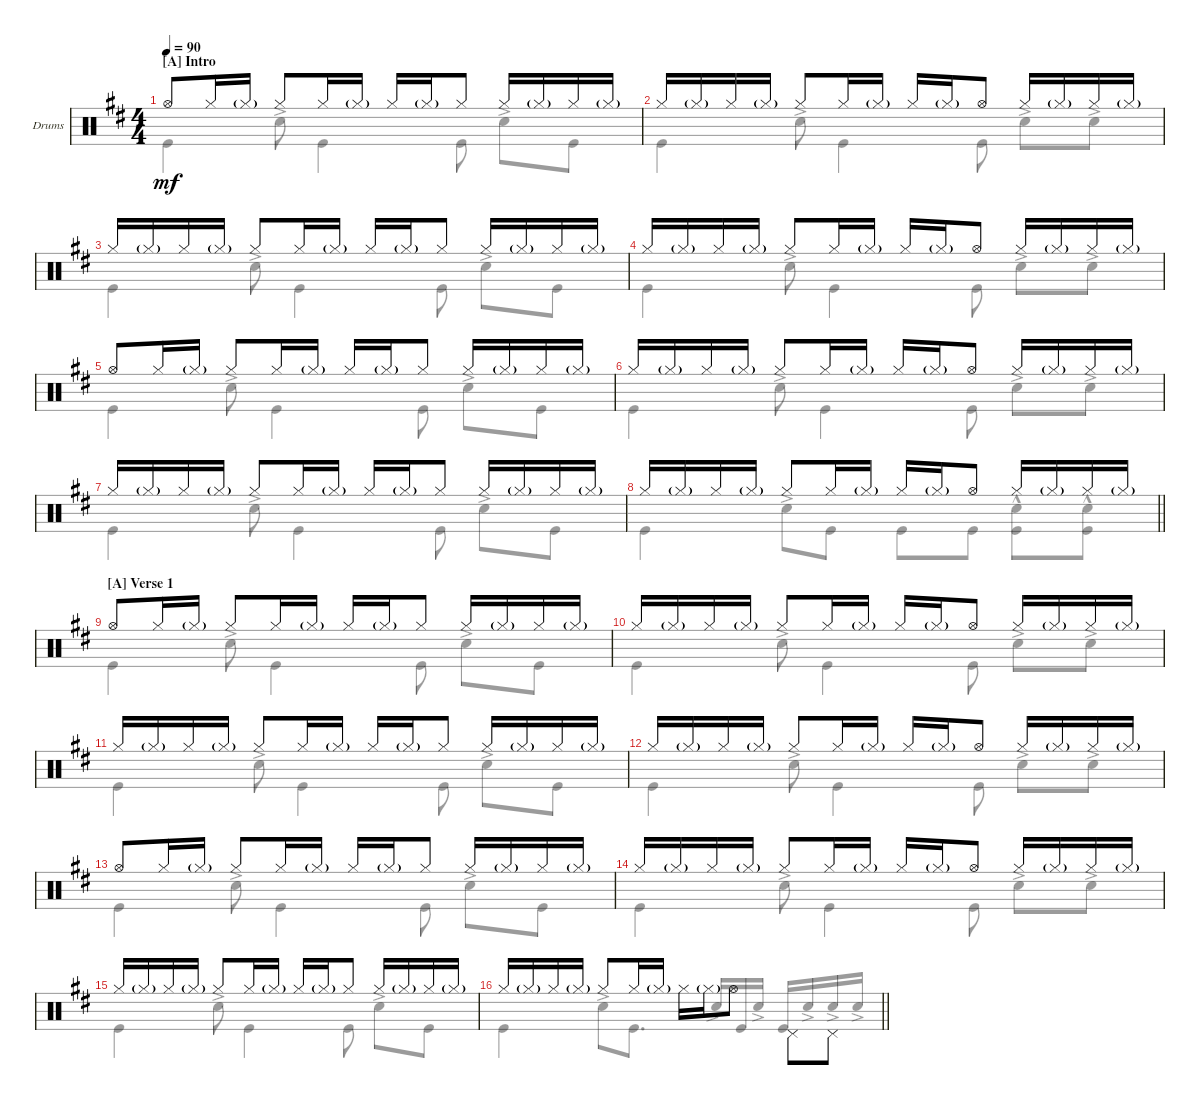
\defaultSystemsLayout 4
\bracketExtendMode groupsimilarinstruments
\firstSystemTrackNameOrientation horizontal
\otherSystemsTrackNameOrientation horizontal
\track ("Drumkit" "Drums") {instrument percussion}
\staff {score}
\articulation defaults
\voice
\ts (4 4)
\section ("A" "Intro")
\tempo 90
\clef neutral
\scale
0.552632
\ks d "Hi-Hat (open)".8{dy mf} "Hi-Hat (closed)".16 "Hi-Hat (closed)"{g}.16 "Hi-Hat (closed)".8 "Hi-Hat (closed)".16 "Hi-Hat (closed)"{g}.16 "Hi-Hat (closed)".16 "Hi-Hat (closed)"{g}.16 "Hi-Hat (closed)".8 "Hi-Hat (closed)".16 "Hi-Hat (closed)"{g}.16 "Hi-Hat (closed)".16 "Hi-Hat (closed)"{g}.16
|
\scale
0.447368 "Hi-Hat (closed)".16 "Hi-Hat (closed)"{g}.16 "Hi-Hat (closed)".16 "Hi-Hat (closed)"{g}.16 "Hi-Hat (closed)".8 "Hi-Hat (closed)".16 "Hi-Hat (closed)"{g}.16 "Hi-Hat (closed)".16 "Hi-Hat (closed)"{g}.16 "Hi-Hat (open)".8 "Hi-Hat (closed)".16 "Hi-Hat (closed)"{g}.16 "Hi-Hat (closed)".16 "Hi-Hat (closed)"{g}.16 |
\scale
0.5 "Hi-Hat (closed)".16 "Hi-Hat (closed)"{g}.16 "Hi-Hat (closed)".16 "Hi-Hat (closed)"{g}.16 "Hi-Hat (closed)".8 "Hi-Hat (closed)".16 "Hi-Hat (closed)"{g}.16 "Hi-Hat (closed)".16 "Hi-Hat (closed)"{g}.16 "Hi-Hat (closed)".8 "Hi-Hat (closed)".16 "Hi-Hat (closed)"{g}.16 "Hi-Hat (closed)".16 "Hi-Hat (closed)"{g}.16 |
\scale
0.5 "Hi-Hat (closed)".16 "Hi-Hat (closed)"{g}.16 "Hi-Hat (closed)".16 "Hi-Hat (closed)"{g}.16 "Hi-Hat (closed)".8 "Hi-Hat (closed)".16 "Hi-Hat (closed)"{g}.16 "Hi-Hat (closed)".16 "Hi-Hat (closed)"{g}.16 "Hi-Hat (open)".8 "Hi-Hat (closed)".16 "Hi-Hat (closed)"{g}.16 "Hi-Hat (closed)".16 "Hi-Hat (closed)"{g}.16 |
\scale
0.5 "Hi-Hat (open)".8 "Hi-Hat (closed)".16 "Hi-Hat (closed)"{g}.16 "Hi-Hat (closed)".8 "Hi-Hat (closed)".16 "Hi-Hat (closed)"{g}.16 "Hi-Hat (closed)".16 "Hi-Hat (closed)"{g}.16 "Hi-Hat (closed)".8 "Hi-Hat (closed)".16 "Hi-Hat (closed)"{g}.16 "Hi-Hat (closed)".16 "Hi-Hat (closed)"{g}.16 |
\scale
0.5 "Hi-Hat (closed)".16 "Hi-Hat (closed)"{g}.16 "Hi-Hat (closed)".16 "Hi-Hat (closed)"{g}.16 "Hi-Hat (closed)".8 "Hi-Hat (closed)".16 "Hi-Hat (closed)"{g}.16 "Hi-Hat (closed)".16 "Hi-Hat (closed)"{g}.16 "Hi-Hat (open)".8 "Hi-Hat (closed)".16 "Hi-Hat (closed)"{g}.16 "Hi-Hat (closed)".16 "Hi-Hat (closed)"{g}.16 |
\scale
0.5 "Hi-Hat (closed)".16 "Hi-Hat (closed)"{g}.16 "Hi-Hat (closed)".16 "Hi-Hat (closed)"{g}.16 "Hi-Hat (closed)".8 "Hi-Hat (closed)".16 "Hi-Hat (closed)"{g}.16 "Hi-Hat (closed)".16 "Hi-Hat (closed)"{g}.16 "Hi-Hat (closed)".8 "Hi-Hat (closed)".16 "Hi-Hat (closed)"{g}.16 "Hi-Hat (closed)".16 "Hi-Hat (closed)"{g}.16 |
\scale
0.5
\barLineRight lightlight "Hi-Hat (closed)".16 "Hi-Hat (closed)"{g}.16 "Hi-Hat (closed)".16 "Hi-Hat (closed)"{g}.16 "Hi-Hat (closed)".8 "Hi-Hat (closed)".16 "Hi-Hat (closed)"{g}.16 "Hi-Hat (closed)".16 "Hi-Hat (closed)"{g}.16 "Hi-Hat (open)".8 "Hi-Hat (closed)".16 "Hi-Hat (closed)"{g}.16 "Hi-Hat (closed)".16 "Hi-Hat (closed)"{g}.16
|
\section ("A" "Verse 1")
\scale
0.5 "Hi-Hat (open)".8 "Hi-Hat (closed)".16 "Hi-Hat (closed)"{g}.16 "Hi-Hat (closed)".8 "Hi-Hat (closed)".16 "Hi-Hat (closed)"{g}.16 "Hi-Hat (closed)".16 "Hi-Hat (closed)"{g}.16 "Hi-Hat (closed)".8 "Hi-Hat (closed)".16 "Hi-Hat (closed)"{g}.16 "Hi-Hat (closed)".16 "Hi-Hat (closed)"{g}.16 |
\scale
0.5 "Hi-Hat (closed)".16 "Hi-Hat (closed)"{g}.16 "Hi-Hat (closed)".16 "Hi-Hat (closed)"{g}.16 "Hi-Hat (closed)".8 "Hi-Hat (closed)".16 "Hi-Hat (closed)"{g}.16 "Hi-Hat (closed)".16 "Hi-Hat (closed)"{g}.16 "Hi-Hat (open)".8 "Hi-Hat (closed)".16 "Hi-Hat (closed)"{g}.16 "Hi-Hat (closed)".16 "Hi-Hat (closed)"{g}.16 |
\scale
0.5 "Hi-Hat (closed)".16 "Hi-Hat (closed)"{g}.16 "Hi-Hat (closed)".16 "Hi-Hat (closed)"{g}.16 "Hi-Hat (closed)".8 "Hi-Hat (closed)".16 "Hi-Hat (closed)"{g}.16 "Hi-Hat (closed)".16 "Hi-Hat (closed)"{g}.16 "Hi-Hat (closed)".8 "Hi-Hat (closed)".16 "Hi-Hat (closed)"{g}.16 "Hi-Hat (closed)".16 "Hi-Hat (closed)"{g}.16 |
\scale
0.5 "Hi-Hat (closed)".16 "Hi-Hat (closed)"{g}.16 "Hi-Hat (closed)".16 "Hi-Hat (closed)"{g}.16 "Hi-Hat (closed)".8 "Hi-Hat (closed)".16 "Hi-Hat (closed)"{g}.16 "Hi-Hat (closed)".16 "Hi-Hat (closed)"{g}.16 "Hi-Hat (open)".8 "Hi-Hat (closed)".16 "Hi-Hat (closed)"{g}.16 "Hi-Hat (closed)".16 "Hi-Hat (closed)"{g}.16 |
\scale
0.5 "Hi-Hat (open)".8 "Hi-Hat (closed)".16 "Hi-Hat (closed)"{g}.16 "Hi-Hat (closed)".8 "Hi-Hat (closed)".16 "Hi-Hat (closed)"{g}.16 "Hi-Hat (closed)".16 "Hi-Hat (closed)"{g}.16 "Hi-Hat (closed)".8 "Hi-Hat (closed)".16 "Hi-Hat (closed)"{g}.16 "Hi-Hat (closed)".16 "Hi-Hat (closed)"{g}.16 |
\scale
0.5 "Hi-Hat (closed)".16 "Hi-Hat (closed)"{g}.16 "Hi-Hat (closed)".16 "Hi-Hat (closed)"{g}.16 "Hi-Hat (closed)".8 "Hi-Hat (closed)".16 "Hi-Hat (closed)"{g}.16 "Hi-Hat (closed)".16 "Hi-Hat (closed)"{g}.16 "Hi-Hat (open)".8 "Hi-Hat (closed)".16 "Hi-Hat (closed)"{g}.16 "Hi-Hat (closed)".16 "Hi-Hat (closed)"{g}.16 |
\scale
0.472222 "Hi-Hat (closed)".16 "Hi-Hat (closed)"{g}.16 "Hi-Hat (closed)".16 "Hi-Hat (closed)"{g}.16 "Hi-Hat (closed)".8 "Hi-Hat (closed)".16 "Hi-Hat (closed)"{g}.16 "Hi-Hat (closed)".16 "Hi-Hat (closed)"{g}.16 "Hi-Hat (closed)".8 "Hi-Hat (closed)".16 "Hi-Hat (closed)"{g}.16 "Hi-Hat (closed)".16 "Hi-Hat (closed)"{g}.16 |
\scale
0.527778
\barLineRight lightlight "Hi-Hat (closed)".16 "Hi-Hat (closed)"{g}.16 "Hi-Hat (closed)".16 "Hi-Hat (closed)"{g}.16 "Hi-Hat (closed)".8 "Hi-Hat (closed)".16 "Hi-Hat (closed)"{g}.16 "Hi-Hat (closed)".16 "Hi-Hat (closed)"{g}.16 "Hi-Hat (open)".8 "Pedal Hi-Hat (hit)".8{beam invert} "Pedal Hi-Hat (hit)".8
\voice
\clef neutral
\ottava regular
\simile none
\scale
0.552632
\ks d "Kick (hit)".4{dy mf} "Snare (hit) 2"{ac}.8 "Kick (hit)".4 "Kick (hit)".8 "Snare (hit) 2"{ac}.8 "Kick (hit)".8
|
\scale
0.447368 "Kick (hit)".4 "Snare (hit) 2"{ac}.8 "Kick (hit)".4 "Kick (hit)".8 "Snare (hit) 2"{ac}.8 "Snare (hit) 2"{ac}.8 |
\scale
0.5 "Kick (hit)".4 "Snare (hit) 2"{ac}.8 "Kick (hit)".4 "Kick (hit)".8 "Snare (hit) 2"{ac}.8 "Kick (hit)".8 |
\scale
0.5 "Kick (hit)".4 "Snare (hit) 2"{ac}.8 "Kick (hit)".4 "Kick (hit)".8 "Snare (hit) 2"{ac}.8 "Snare (hit) 2"{ac}.8 |
\scale
0.5 "Kick (hit)".4 "Snare (hit) 2"{ac}.8 "Kick (hit)".4 "Kick (hit)".8 "Snare (hit) 2"{ac}.8 "Kick (hit)".8 |
\scale
0.5 "Kick (hit)".4 "Snare (hit) 2"{ac}.8 "Kick (hit)".4 "Kick (hit)".8 "Snare (hit) 2"{ac}.8 "Snare (hit) 2"{ac}.8 |
\scale
0.5 "Kick (hit)".4 "Snare (hit) 2"{ac}.8 "Kick (hit)".4 "Kick (hit)".8 "Snare (hit) 2"{ac}.8 "Kick (hit)".8 |
\scale
0.5
\barLineRight lightlight "Kick (hit)".4 "Snare (hit) 2"{ac}.8 "Kick (hit)".8 "Kick (hit)".8 "Kick (hit)".8
("Snare (hit) 2"{hac} "Kick (hit)").8 ("Snare (hit) 2"{hac} "Kick (hit)").8 |
\scale
0.5 "Kick (hit)".4 "Snare (hit) 2"{ac}.8 "Kick (hit)".4 "Kick (hit)".8 "Snare (hit) 2"{ac}.8 "Kick (hit)".8 |
\scale
0.5 "Kick (hit)".4 "Snare (hit) 2"{ac}.8 "Kick (hit)".4 "Kick (hit)".8 "Snare (hit) 2"{ac}.8 "Snare (hit) 2"{ac}.8 |
\scale
0.5 "Kick (hit)".4 "Snare (hit) 2"{ac}.8 "Kick (hit)".4 "Kick (hit)".8 "Snare (hit) 2"{ac}.8 "Kick (hit)".8 |
\scale
0.5 "Kick (hit)".4 "Snare (hit) 2"{ac}.8 "Kick (hit)".4 "Kick (hit)".8 "Snare (hit) 2"{ac}.8 "Snare (hit) 2"{ac}.8 |
\scale
0.5 "Kick (hit)".4 "Snare (hit) 2"{ac}.8 "Kick (hit)".4 "Kick (hit)".8 "Snare (hit) 2"{ac}.8 "Kick (hit)".8 |
\scale
0.5 "Kick (hit)".4 "Snare (hit) 2"{ac}.8 "Kick (hit)".4 "Kick (hit)".8 "Snare (hit) 2"{ac}.8 "Snare (hit) 2"{ac}.8 |
\scale
0.472222 "Kick (hit)".4 "Snare (hit) 2"{ac}.8 "Kick (hit)".4 "Kick (hit)".8 "Snare (hit) 2"{ac}.8 "Kick (hit)".8 |
\scale
0.527778
\barLineRight lightlight "Kick (hit)".4 "Snare (hit) 2"{ac}.8 "Kick (hit)".8{d} "Snare (hit) 2"{ac}.16 "Kick (hit)".16 "Snare (hit) 2"{ac}.16 "Kick (hit)".16{beam invert} "Snare (hit) 2"{ac}.16 "Snare (hit) 2"{ac}.16 "Snare (hit) 2"{ac}.16
